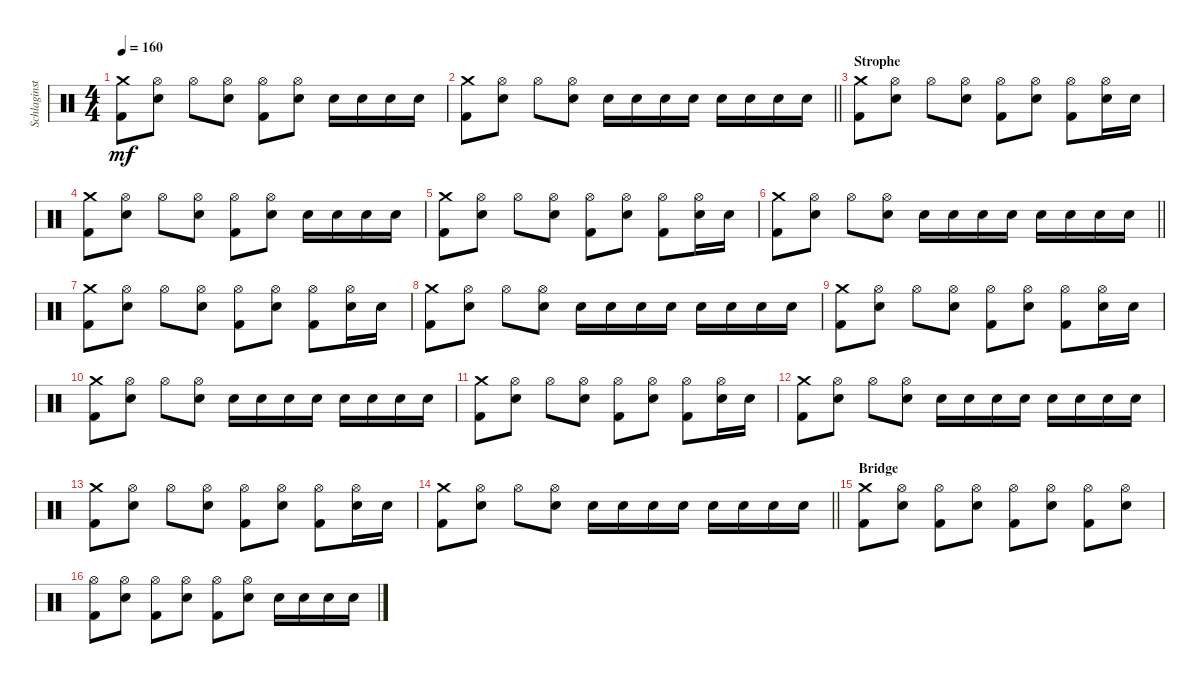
\track ("Schlaginstrumente - Auswahl" "Schlaginst") {instrument percussion}
\staff {score}
\articulation defaults
\ts (4 4)
\tempo 160
\clef neutral
\ks c
("Crash medium (hit)" "Kick (hit) 2").8{dy mf} ("Hi-Hat (open)" "Snare (hit) 2").8 "Hi-Hat (open)".8 ("Hi-Hat (open)" "Snare (hit) 2").8 ("Hi-Hat (open)" "Kick (hit) 2").8 ("Hi-Hat (open)" "Snare (hit) 2").8 "Snare (hit) 2".16 "Snare (hit) 2".16 "Snare (hit) 2".16 "Snare (hit) 2".16 |
\barLineRight lightlight
("Crash medium (hit)" "Kick (hit) 2").8 ("Hi-Hat (open)" "Snare (hit) 2").8 "Hi-Hat (open)".8 ("Hi-Hat (open)" "Snare (hit) 2").8 "Snare (hit) 2".16 "Snare (hit) 2".16 "Snare (hit) 2".16 "Snare (hit) 2".16 "Snare (hit) 2".16 "Snare (hit) 2".16 "Snare (hit) 2".16 "Snare (hit) 2".16 |
\section ("" "Strophe")
("Crash medium (hit)" "Kick (hit) 2").8 ("Hi-Hat (open)" "Snare (hit) 2").8 "Hi-Hat (open)".8 ("Hi-Hat (open)" "Snare (hit) 2").8 ("Hi-Hat (open)" "Kick (hit) 2").8 ("Hi-Hat (open)" "Snare (hit) 2").8 ("Hi-Hat (open)" "Kick (hit) 2").8 ("Hi-Hat (open)" "Snare (hit) 2").16 "Snare (hit) 2".16 |
("Crash medium (hit)" "Kick (hit) 2").8 ("Hi-Hat (open)" "Snare (hit) 2").8 "Hi-Hat (open)".8 ("Hi-Hat (open)" "Snare (hit) 2").8 ("Hi-Hat (open)" "Kick (hit) 2").8 ("Hi-Hat (open)" "Snare (hit) 2").8 "Snare (hit) 2".16 "Snare (hit) 2".16 "Snare (hit) 2".16 "Snare (hit) 2".16 |
("Crash medium (hit)" "Kick (hit) 2").8 ("Hi-Hat (open)" "Snare (hit) 2").8 "Hi-Hat (open)".8 ("Hi-Hat (open)" "Snare (hit) 2").8 ("Hi-Hat (open)" "Kick (hit) 2").8 ("Hi-Hat (open)" "Snare (hit) 2").8 ("Hi-Hat (open)" "Kick (hit) 2").8 ("Hi-Hat (open)" "Snare (hit) 2").16 "Snare (hit) 2".16 |
\barLineRight lightlight
("Crash medium (hit)" "Kick (hit) 2").8 ("Hi-Hat (open)" "Snare (hit) 2").8 "Hi-Hat (open)".8 ("Hi-Hat (open)" "Snare (hit) 2").8 "Snare (hit) 2".16 "Snare (hit) 2".16 "Snare (hit) 2".16 "Snare (hit) 2".16 "Snare (hit) 2".16 "Snare (hit) 2".16 "Snare (hit) 2".16 "Snare (hit) 2".16 |
("Crash medium (hit)" "Kick (hit) 2").8 ("Hi-Hat (open)" "Snare (hit) 2").8 "Hi-Hat (open)".8 ("Hi-Hat (open)" "Snare (hit) 2").8 ("Hi-Hat (open)" "Kick (hit) 2").8 ("Hi-Hat (open)" "Snare (hit) 2").8 ("Hi-Hat (open)" "Kick (hit) 2").8 ("Hi-Hat (open)" "Snare (hit) 2").16 "Snare (hit) 2".16 |
("Crash medium (hit)" "Kick (hit) 2").8 ("Hi-Hat (open)" "Snare (hit) 2").8 "Hi-Hat (open)".8 ("Hi-Hat (open)" "Snare (hit) 2").8 "Snare (hit) 2".16 "Snare (hit) 2".16 "Snare (hit) 2".16 "Snare (hit) 2".16 "Snare (hit) 2".16 "Snare (hit) 2".16 "Snare (hit) 2".16 "Snare (hit) 2".16 |
("Crash medium (hit)" "Kick (hit) 2").8 ("Hi-Hat (open)" "Snare (hit) 2").8 "Hi-Hat (open)".8 ("Hi-Hat (open)" "Snare (hit) 2").8 ("Hi-Hat (open)" "Kick (hit) 2").8 ("Hi-Hat (open)" "Snare (hit) 2").8 ("Hi-Hat (open)" "Kick (hit) 2").8 ("Hi-Hat (open)" "Snare (hit) 2").16 "Snare (hit) 2".16 |
("Crash medium (hit)" "Kick (hit) 2").8 ("Hi-Hat (open)" "Snare (hit) 2").8 "Hi-Hat (open)".8 ("Hi-Hat (open)" "Snare (hit) 2").8 "Snare (hit) 2".16 "Snare (hit) 2".16 "Snare (hit) 2".16 "Snare (hit) 2".16 "Snare (hit) 2".16 "Snare (hit) 2".16 "Snare (hit) 2".16 "Snare (hit) 2".16 |
("Crash medium (hit)" "Kick (hit) 2").8 ("Hi-Hat (open)" "Snare (hit) 2").8 "Hi-Hat (open)".8 ("Hi-Hat (open)" "Snare (hit) 2").8 ("Hi-Hat (open)" "Kick (hit) 2").8 ("Hi-Hat (open)" "Snare (hit) 2").8 ("Hi-Hat (open)" "Kick (hit) 2").8 ("Hi-Hat (open)" "Snare (hit) 2").16 "Snare (hit) 2".16 |
("Crash medium (hit)" "Kick (hit) 2").8 ("Hi-Hat (open)" "Snare (hit) 2").8 "Hi-Hat (open)".8 ("Hi-Hat (open)" "Snare (hit) 2").8 "Snare (hit) 2".16 "Snare (hit) 2".16 "Snare (hit) 2".16 "Snare (hit) 2".16 "Snare (hit) 2".16 "Snare (hit) 2".16 "Snare (hit) 2".16 "Snare (hit) 2".16 |
("Crash medium (hit)" "Kick (hit) 2").8 ("Hi-Hat (open)" "Snare (hit) 2").8 "Hi-Hat (open)".8 ("Hi-Hat (open)" "Snare (hit) 2").8 ("Hi-Hat (open)" "Kick (hit) 2").8 ("Hi-Hat (open)" "Snare (hit) 2").8 ("Hi-Hat (open)" "Kick (hit) 2").8 ("Hi-Hat (open)" "Snare (hit) 2").16 "Snare (hit) 2".16 |
\barLineRight lightlight
("Crash medium (hit)" "Kick (hit) 2").8 ("Hi-Hat (open)" "Snare (hit) 2").8 "Hi-Hat (open)".8 ("Hi-Hat (open)" "Snare (hit) 2").8 "Snare (hit) 2".16 "Snare (hit) 2".16 "Snare (hit) 2".16 "Snare (hit) 2".16 "Snare (hit) 2".16 "Snare (hit) 2".16 "Snare (hit) 2".16 "Snare (hit) 2".16 |
\section ("" "Bridge")
("Crash medium (hit)" "Kick (hit) 2").8 ("Hi-Hat (open)" "Snare (hit) 2").8 ("Hi-Hat (open)" "Kick (hit) 2").8 ("Hi-Hat (open)" "Snare (hit) 2").8 ("Hi-Hat (open)" "Kick (hit) 2").8 ("Hi-Hat (open)" "Snare (hit) 2").8 ("Hi-Hat (open)" "Kick (hit) 2").8 ("Hi-Hat (open)" "Snare (hit) 2").8 |
("Hi-Hat (open)" "Kick (hit) 2").8 ("Hi-Hat (open)" "Snare (hit) 2").8 ("Hi-Hat (open)" "Kick (hit) 2").8 ("Hi-Hat (open)" "Snare (hit) 2").8 ("Hi-Hat (open)" "Kick (hit) 2").8 ("Hi-Hat (open)" "Snare (hit) 2").8 "Snare (hit) 2".16 "Snare (hit) 2".16 "Snare (hit) 2".16 "Snare (hit) 2".16
